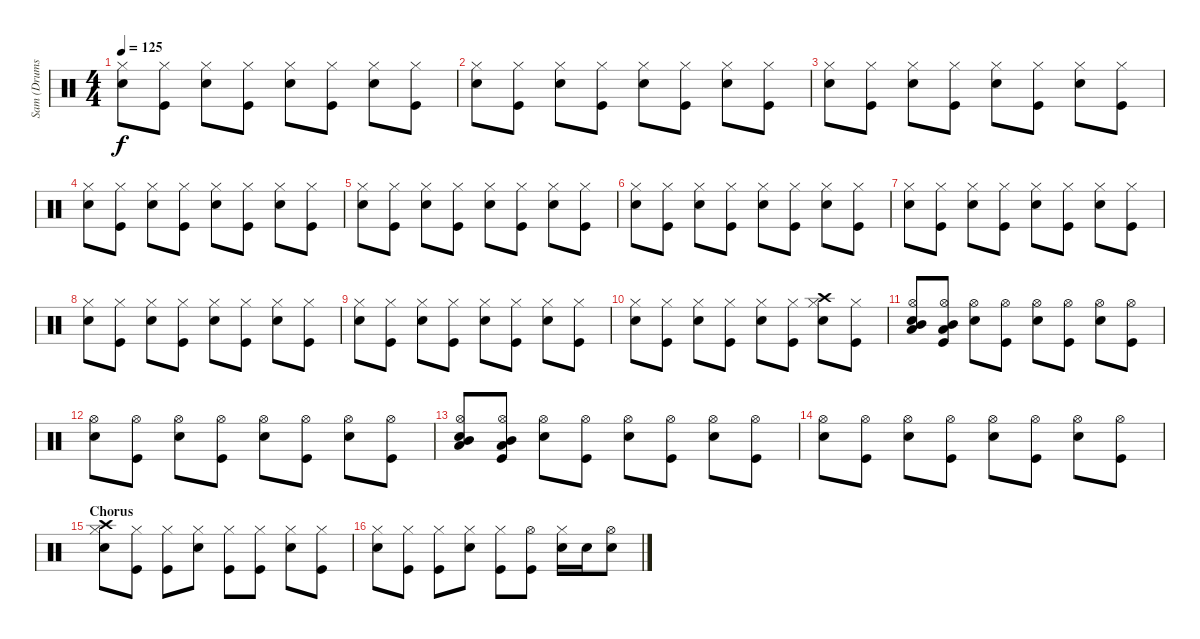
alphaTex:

\track ("Sam (Drums)" "Sam (Drums") {instrument percussion}
\staff {score}
\articulation defaults
\ts (4 4)
\tempo 125
\clef neutral
\ks c
("Hi-Hat (closed)" "Snare (hit) 2").8{dy f} ("Hi-Hat (closed)" "Kick (hit)").8 ("Hi-Hat (closed)" "Snare (hit) 2").8 ("Hi-Hat (closed)" "Kick (hit)").8 ("Hi-Hat (closed)" "Snare (hit) 2").8 ("Hi-Hat (closed)" "Kick (hit)").8 ("Hi-Hat (closed)" "Snare (hit) 2").8 ("Hi-Hat (closed)" "Kick (hit)").8 |
("Hi-Hat (closed)" "Snare (hit) 2").8 ("Hi-Hat (closed)" "Kick (hit)").8 ("Hi-Hat (closed)" "Snare (hit) 2").8 ("Hi-Hat (closed)" "Kick (hit)").8 ("Hi-Hat (closed)" "Snare (hit) 2").8 ("Hi-Hat (closed)" "Kick (hit)").8 ("Hi-Hat (closed)" "Snare (hit) 2").8 ("Hi-Hat (closed)" "Kick (hit)").8 |
("Hi-Hat (closed)" "Snare (hit) 2").8 ("Hi-Hat (closed)" "Kick (hit)").8 ("Hi-Hat (closed)" "Snare (hit) 2").8 ("Hi-Hat (closed)" "Kick (hit)").8 ("Hi-Hat (closed)" "Snare (hit) 2").8 ("Hi-Hat (closed)" "Kick (hit)").8 ("Hi-Hat (closed)" "Snare (hit) 2").8 ("Hi-Hat (closed)" "Kick (hit)").8 |
("Hi-Hat (closed)" "Snare (hit) 2").8 ("Hi-Hat (closed)" "Kick (hit)").8 ("Hi-Hat (closed)" "Snare (hit) 2").8 ("Hi-Hat (closed)" "Kick (hit)").8 ("Hi-Hat (closed)" "Snare (hit) 2").8 ("Hi-Hat (closed)" "Kick (hit)").8 ("Hi-Hat (closed)" "Snare (hit) 2").8 ("Hi-Hat (closed)" "Kick (hit)").8 |
("Hi-Hat (closed)" "Snare (hit) 2").8 ("Hi-Hat (closed)" "Kick (hit)").8 ("Hi-Hat (closed)" "Snare (hit) 2").8 ("Hi-Hat (closed)" "Kick (hit)").8 ("Hi-Hat (closed)" "Snare (hit) 2").8 ("Hi-Hat (closed)" "Kick (hit)").8 ("Hi-Hat (closed)" "Snare (hit) 2").8 ("Hi-Hat (closed)" "Kick (hit)").8 |
("Hi-Hat (closed)" "Snare (hit) 2").8 ("Hi-Hat (closed)" "Kick (hit)").8 ("Hi-Hat (closed)" "Snare (hit) 2").8 ("Hi-Hat (closed)" "Kick (hit)").8 ("Hi-Hat (closed)" "Snare (hit) 2").8 ("Hi-Hat (closed)" "Kick (hit)").8 ("Hi-Hat (closed)" "Snare (hit) 2").8 ("Hi-Hat (closed)" "Kick (hit)").8 |
("Hi-Hat (closed)" "Snare (hit) 2").8 ("Hi-Hat (closed)" "Kick (hit)").8 ("Hi-Hat (closed)" "Snare (hit) 2").8 ("Hi-Hat (closed)" "Kick (hit)").8 ("Hi-Hat (closed)" "Snare (hit) 2").8 ("Hi-Hat (closed)" "Kick (hit)").8 ("Hi-Hat (closed)" "Snare (hit) 2").8 ("Hi-Hat (closed)" "Kick (hit)").8 |
("Hi-Hat (closed)" "Snare (hit) 2").8 ("Hi-Hat (closed)" "Kick (hit)").8 ("Hi-Hat (closed)" "Snare (hit) 2").8 ("Hi-Hat (closed)" "Kick (hit)").8 ("Hi-Hat (closed)" "Snare (hit) 2").8 ("Hi-Hat (closed)" "Kick (hit)").8 ("Hi-Hat (closed)" "Snare (hit) 2").8 ("Hi-Hat (closed)" "Kick (hit)").8 |
("Hi-Hat (closed)" "Snare (hit) 2").8 ("Hi-Hat (closed)" "Kick (hit)").8 ("Hi-Hat (closed)" "Snare (hit) 2").8 ("Hi-Hat (closed)" "Kick (hit)").8 ("Hi-Hat (closed)" "Snare (hit) 2").8 ("Hi-Hat (closed)" "Kick (hit)").8 ("Hi-Hat (closed)" "Snare (hit) 2").8 ("Hi-Hat (closed)" "Kick (hit)").8 |
("Hi-Hat (closed)" "Snare (hit) 2").8 ("Hi-Hat (closed)" "Kick (hit)").8 ("Hi-Hat (closed)" "Snare (hit) 2").8 ("Hi-Hat (closed)" "Kick (hit)").8 ("Hi-Hat (closed)" "Snare (hit) 2").8 ("Hi-Hat (closed)" "Kick (hit)").8 ("Crash high (hit)" "Hi-Hat (closed)" "Snare (hit) 2").8 ("Hi-Hat (closed)" "Kick (hit)").8 |
("Hi-Hat (open)" "Low Tom (hit)" "Mid Tom (hit)" "Snare (hit) 2").8 ("Hi-Hat (open)" "Low Tom (hit)" "Mid Tom (hit)" "Kick (hit)").8 ("Hi-Hat (open)" "Snare (hit) 2").8 ("Hi-Hat (open)" "Kick (hit)").8 ("Hi-Hat (open)" "Snare (hit) 2").8 ("Hi-Hat (open)" "Kick (hit)").8 ("Hi-Hat (open)" "Snare (hit) 2").8 ("Hi-Hat (open)" "Kick (hit)").8 |
("Hi-Hat (open)" "Snare (hit) 2").8 ("Hi-Hat (open)" "Kick (hit)").8 ("Hi-Hat (open)" "Snare (hit) 2").8 ("Hi-Hat (open)" "Kick (hit)").8 ("Hi-Hat (open)" "Snare (hit) 2").8 ("Hi-Hat (open)" "Kick (hit)").8 ("Hi-Hat (open)" "Snare (hit) 2").8 ("Hi-Hat (open)" "Kick (hit)").8 |
("Hi-Hat (open)" "Low Tom (hit)" "Mid Tom (hit)" "Snare (hit) 2").8 ("Hi-Hat (open)" "Low Tom (hit)" "Mid Tom (hit)" "Kick (hit)").8 ("Hi-Hat (open)" "Snare (hit) 2").8 ("Hi-Hat (open)" "Kick (hit)").8 ("Hi-Hat (open)" "Snare (hit) 2").8 ("Hi-Hat (open)" "Kick (hit)").8 ("Hi-Hat (open)" "Snare (hit) 2").8 ("Hi-Hat (open)" "Kick (hit)").8 |
("Hi-Hat (open)" "Snare (hit) 2").8 ("Hi-Hat (open)" "Kick (hit)").8 ("Hi-Hat (open)" "Snare (hit) 2").8 ("Hi-Hat (open)" "Kick (hit)").8 ("Hi-Hat (open)" "Snare (hit) 2").8 ("Hi-Hat (open)" "Kick (hit)").8 ("Hi-Hat (open)" "Snare (hit) 2").8 ("Hi-Hat (open)" "Kick (hit)").8 |
\section ("" "Chorus")
("Crash high (hit)" "Hi-Hat (closed)" "Snare (hit) 2").8{volume 16} ("Hi-Hat (closed)" "Kick (hit)").8 ("Hi-Hat (closed)" "Kick (hit)").8 ("Hi-Hat (closed)" "Snare (hit) 2").8 ("Hi-Hat (closed)" "Kick (hit)").8 ("Hi-Hat (closed)" "Kick (hit)").8 ("Hi-Hat (closed)" "Snare (hit) 2").8 ("Hi-Hat (closed)" "Kick (hit)").8 |
("Hi-Hat (closed)" "Snare (hit) 2").8 ("Hi-Hat (closed)" "Kick (hit)").8 ("Hi-Hat (closed)" "Kick (hit)").8 ("Hi-Hat (closed)" "Snare (hit) 2").8 ("Hi-Hat (closed)" "Kick (hit)").8 ("Hi-Hat (open)" "Kick (hit)").8 ("Hi-Hat (closed)" "Snare (hit) 2").16 "Snare (hit) 2".16 ("Hi-Hat (open)" "Snare (hit) 2").8
